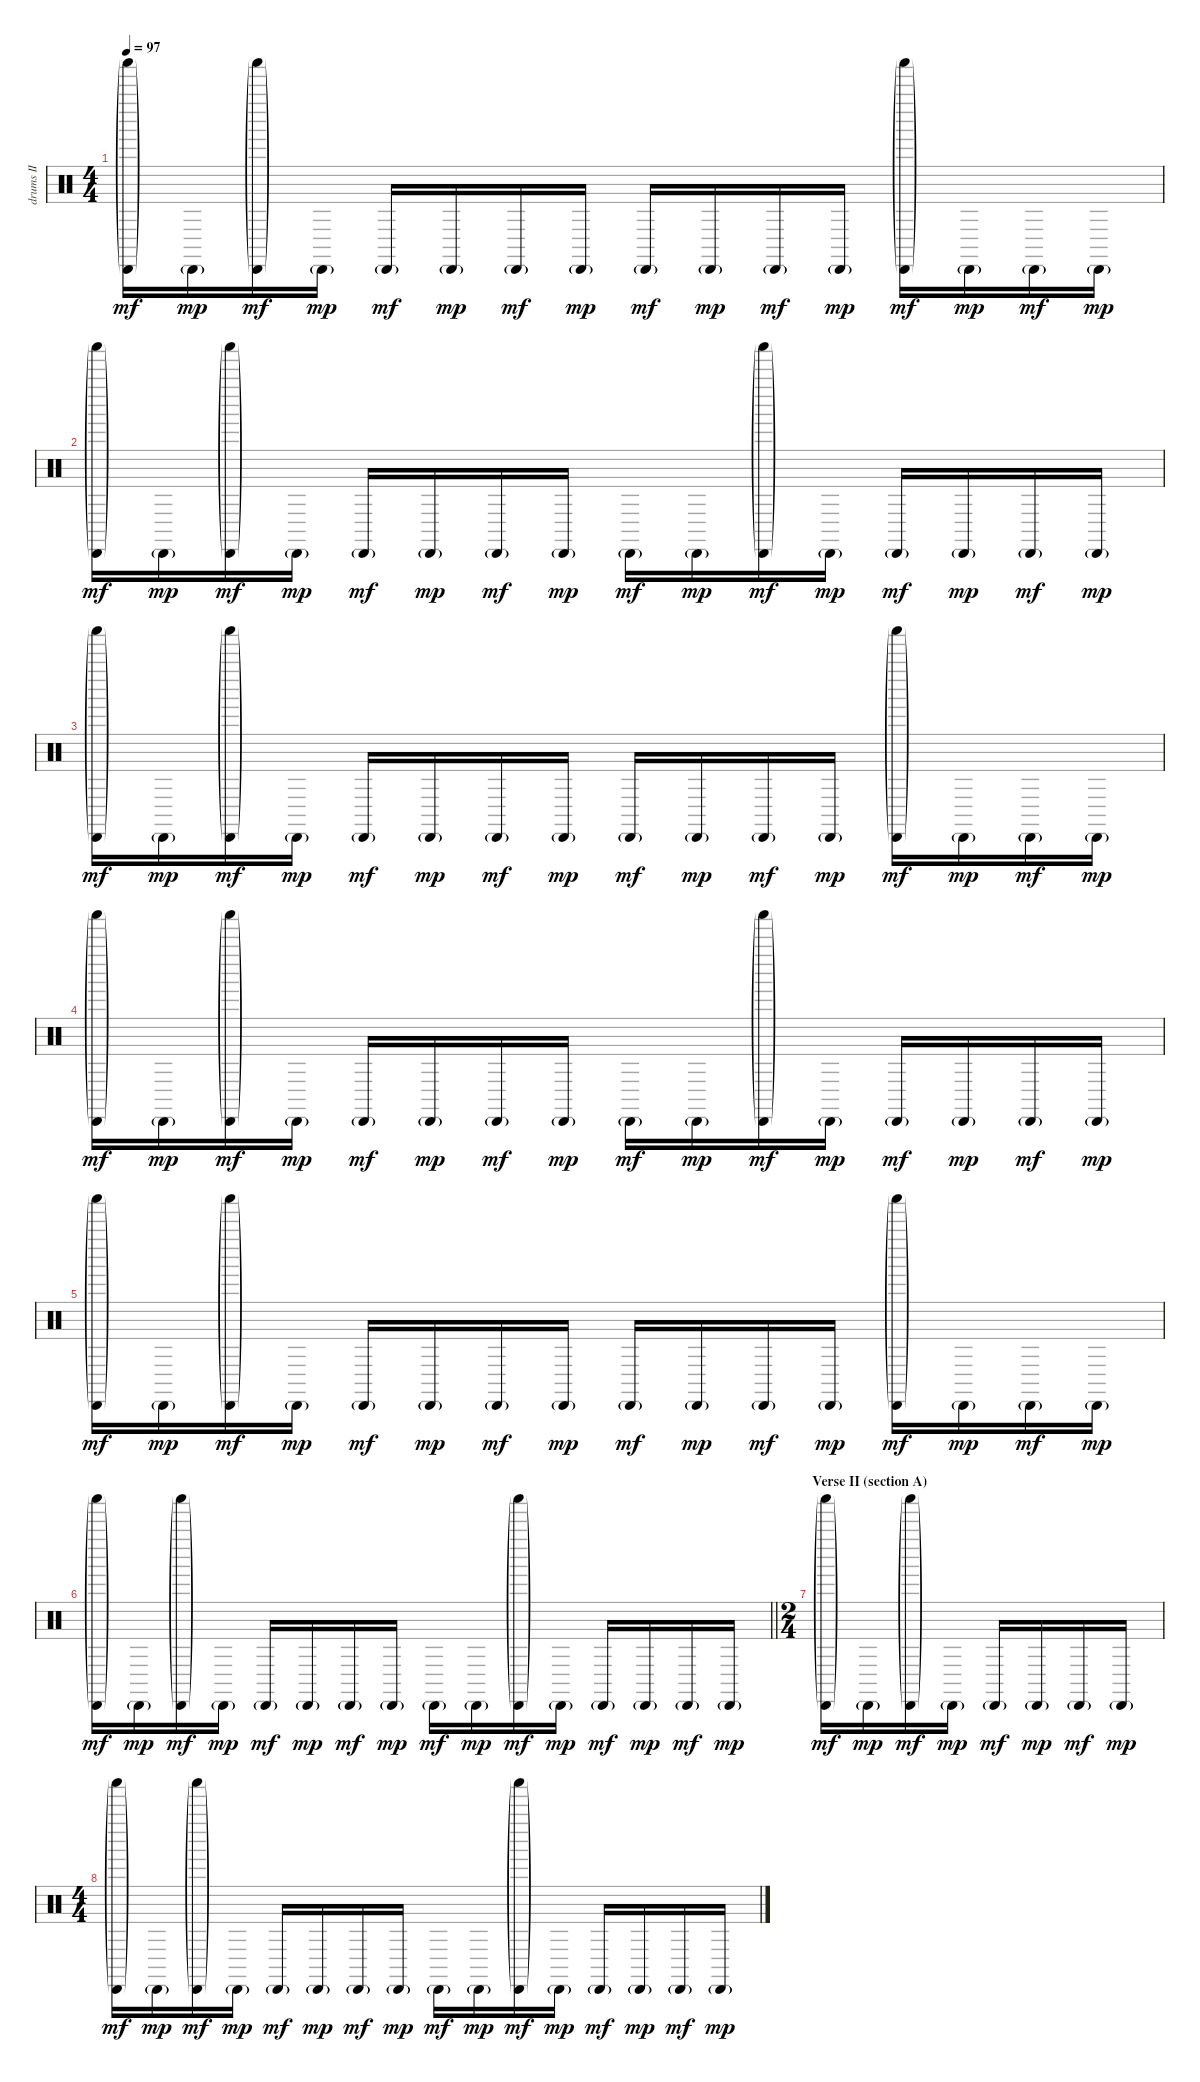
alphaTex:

\track ("drums II" "drums II") {instrument percussion}
\staff {score}
\articulation defaults
\ts (4 4)
\tempo 97
\clef neutral
\ks c
("Shaker (hit)"{g} "Cabasa (hit)"{g}).16{dy mf} "Cabasa (hit)"{g}.16{dy mp} ("Shaker (hit)"{g} "Cabasa (hit)"{g}).16{dy mf} "Cabasa (hit)"{g}.16{dy mp} "Cabasa (hit)"{g}.16{dy mf} "Cabasa (hit)"{g}.16{dy mp} "Cabasa (hit)"{g}.16{dy mf} "Cabasa (hit)"{g}.16{dy mp} "Cabasa (hit)"{g}.16{dy mf} "Cabasa (hit)"{g}.16{dy mp} "Cabasa (hit)"{g}.16{dy mf} "Cabasa (hit)"{g}.16{dy mp} ("Shaker (hit)"{g} "Cabasa (hit)"{g}).16{dy mf} "Cabasa (hit)"{g}.16{dy mp} "Cabasa (hit)"{g}.16{dy mf} "Cabasa (hit)"{g}.16{dy mp} |
("Shaker (hit)"{g} "Cabasa (hit)"{g}).16{dy mf} "Cabasa (hit)"{g}.16{dy mp} ("Shaker (hit)"{g} "Cabasa (hit)"{g}).16{dy mf} "Cabasa (hit)"{g}.16{dy mp} "Cabasa (hit)"{g}.16{dy mf} "Cabasa (hit)"{g}.16{dy mp} "Cabasa (hit)"{g}.16{dy mf} "Cabasa (hit)"{g}.16{dy mp} "Cabasa (hit)"{g}.16{dy mf} "Cabasa (hit)"{g}.16{dy mp} ("Shaker (hit)"{g} "Cabasa (hit)"{g}).16{dy mf} "Cabasa (hit)"{g}.16{dy mp} "Cabasa (hit)"{g}.16{dy mf} "Cabasa (hit)"{g}.16{dy mp} "Cabasa (hit)"{g}.16{dy mf} "Cabasa (hit)"{g}.16{dy mp} |
("Shaker (hit)"{g} "Cabasa (hit)"{g}).16{dy mf} "Cabasa (hit)"{g}.16{dy mp} ("Shaker (hit)"{g} "Cabasa (hit)"{g}).16{dy mf} "Cabasa (hit)"{g}.16{dy mp} "Cabasa (hit)"{g}.16{dy mf} "Cabasa (hit)"{g}.16{dy mp} "Cabasa (hit)"{g}.16{dy mf} "Cabasa (hit)"{g}.16{dy mp} "Cabasa (hit)"{g}.16{dy mf} "Cabasa (hit)"{g}.16{dy mp} "Cabasa (hit)"{g}.16{dy mf} "Cabasa (hit)"{g}.16{dy mp} ("Shaker (hit)"{g} "Cabasa (hit)"{g}).16{dy mf} "Cabasa (hit)"{g}.16{dy mp} "Cabasa (hit)"{g}.16{dy mf} "Cabasa (hit)"{g}.16{dy mp} |
("Shaker (hit)"{g} "Cabasa (hit)"{g}).16{dy mf} "Cabasa (hit)"{g}.16{dy mp} ("Shaker (hit)"{g} "Cabasa (hit)"{g}).16{dy mf} "Cabasa (hit)"{g}.16{dy mp} "Cabasa (hit)"{g}.16{dy mf} "Cabasa (hit)"{g}.16{dy mp} "Cabasa (hit)"{g}.16{dy mf} "Cabasa (hit)"{g}.16{dy mp} "Cabasa (hit)"{g}.16{dy mf} "Cabasa (hit)"{g}.16{dy mp} ("Shaker (hit)"{g} "Cabasa (hit)"{g}).16{dy mf} "Cabasa (hit)"{g}.16{dy mp} "Cabasa (hit)"{g}.16{dy mf} "Cabasa (hit)"{g}.16{dy mp} "Cabasa (hit)"{g}.16{dy mf} "Cabasa (hit)"{g}.16{dy mp} |
("Shaker (hit)"{g} "Cabasa (hit)"{g}).16{dy mf} "Cabasa (hit)"{g}.16{dy mp} ("Shaker (hit)"{g} "Cabasa (hit)"{g}).16{dy mf} "Cabasa (hit)"{g}.16{dy mp} "Cabasa (hit)"{g}.16{dy mf} "Cabasa (hit)"{g}.16{dy mp} "Cabasa (hit)"{g}.16{dy mf} "Cabasa (hit)"{g}.16{dy mp} "Cabasa (hit)"{g}.16{dy mf} "Cabasa (hit)"{g}.16{dy mp} "Cabasa (hit)"{g}.16{dy mf} "Cabasa (hit)"{g}.16{dy mp} ("Shaker (hit)"{g} "Cabasa (hit)"{g}).16{dy mf} "Cabasa (hit)"{g}.16{dy mp} "Cabasa (hit)"{g}.16{dy mf} "Cabasa (hit)"{g}.16{dy mp} |
\barLineRight lightlight
("Shaker (hit)"{g} "Cabasa (hit)"{g}).16{dy mf} "Cabasa (hit)"{g}.16{dy mp} ("Shaker (hit)"{g} "Cabasa (hit)"{g}).16{dy mf} "Cabasa (hit)"{g}.16{dy mp} "Cabasa (hit)"{g}.16{dy mf} "Cabasa (hit)"{g}.16{dy mp} "Cabasa (hit)"{g}.16{dy mf} "Cabasa (hit)"{g}.16{dy mp} "Cabasa (hit)"{g}.16{dy mf} "Cabasa (hit)"{g}.16{dy mp} ("Shaker (hit)"{g} "Cabasa (hit)"{g}).16{dy mf} "Cabasa (hit)"{g}.16{dy mp} "Cabasa (hit)"{g}.16{dy mf} "Cabasa (hit)"{g}.16{dy mp} "Cabasa (hit)"{g}.16{dy mf} "Cabasa (hit)"{g}.16{dy mp} |
\ts (2 4)
\section ("" "Verse II (section A)")
("Shaker (hit)"{g} "Cabasa (hit)"{g}).16{dy mf} "Cabasa (hit)"{g}.16{dy mp} ("Shaker (hit)"{g} "Cabasa (hit)"{g}).16{dy mf} "Cabasa (hit)"{g}.16{dy mp} "Cabasa (hit)"{g}.16{dy mf} "Cabasa (hit)"{g}.16{dy mp} "Cabasa (hit)"{g}.16{dy mf} "Cabasa (hit)"{g}.16{dy mp} |
\ts (4 4)
("Shaker (hit)"{g} "Cabasa (hit)"{g}).16{dy mf} "Cabasa (hit)"{g}.16{dy mp} ("Shaker (hit)"{g} "Cabasa (hit)"{g}).16{dy mf} "Cabasa (hit)"{g}.16{dy mp} "Cabasa (hit)"{g}.16{dy mf} "Cabasa (hit)"{g}.16{dy mp} "Cabasa (hit)"{g}.16{dy mf} "Cabasa (hit)"{g}.16{dy mp} "Cabasa (hit)"{g}.16{dy mf} "Cabasa (hit)"{g}.16{dy mp} ("Shaker (hit)"{g} "Cabasa (hit)"{g}).16{dy mf} "Cabasa (hit)"{g}.16{dy mp} "Cabasa (hit)"{g}.16{dy mf} "Cabasa (hit)"{g}.16{dy mp} "Cabasa (hit)"{g}.16{dy mf} "Cabasa (hit)"{g}.16{dy mp}
